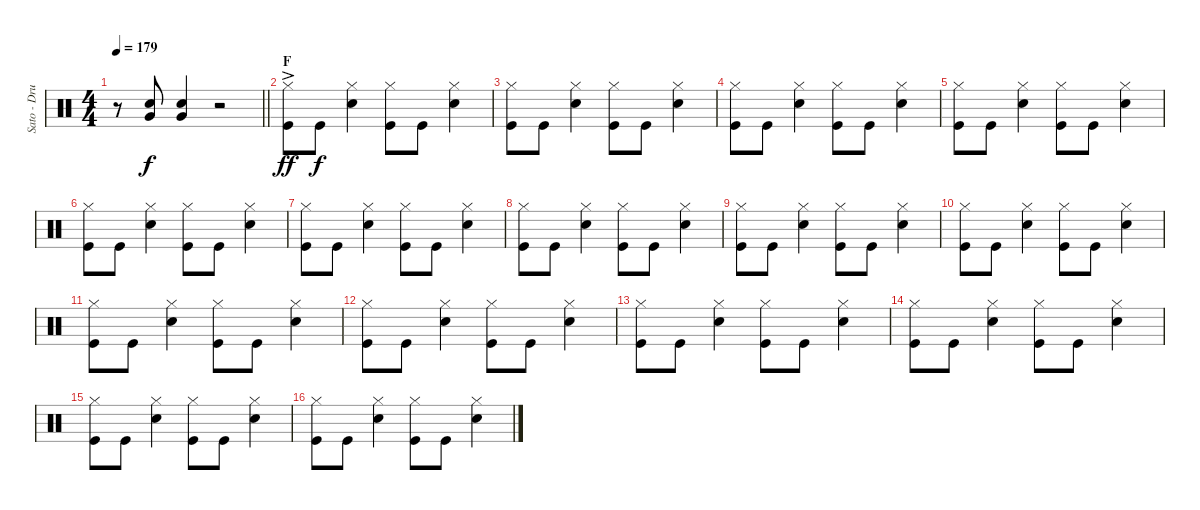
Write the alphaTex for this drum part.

\track ("Sato - Drums" "Sato - Dru") {instrument percussion}
\staff {score}
\articulation defaults
\ts (4 4)
\tempo 179
\clef neutral
\barLineRight lightlight
\ks c
r.8{dy f} ("Electric Snare (hit)" "Very Low Tom (hit)").8 ("Electric Snare (hit)" "Very Low Tom (hit)").4 r.2 |
\section ("" "F")
("Hi-Hat (closed)"{ac} "Kick (hit)"{ac}).8{dy ff} "Kick (hit)".8{dy f} ("Hi-Hat (closed)" "Electric Snare (hit)").4 ("Hi-Hat (closed)" "Kick (hit)").8 "Kick (hit)".8 ("Hi-Hat (closed)" "Electric Snare (hit)").4 |
("Hi-Hat (closed)" "Kick (hit)").8 "Kick (hit)".8 ("Hi-Hat (closed)" "Electric Snare (hit)").4 ("Hi-Hat (closed)" "Kick (hit)").8 "Kick (hit)".8 ("Hi-Hat (closed)" "Electric Snare (hit)").4 |
("Hi-Hat (closed)" "Kick (hit)").8 "Kick (hit)".8 ("Hi-Hat (closed)" "Electric Snare (hit)").4 ("Hi-Hat (closed)" "Kick (hit)").8 "Kick (hit)".8 ("Hi-Hat (closed)" "Electric Snare (hit)").4 |
("Hi-Hat (closed)" "Kick (hit)").8 "Kick (hit)".8 ("Hi-Hat (closed)" "Electric Snare (hit)").4 ("Hi-Hat (closed)" "Kick (hit)").8 "Kick (hit)".8 ("Hi-Hat (closed)" "Electric Snare (hit)").4 |
("Hi-Hat (closed)" "Kick (hit)").8 "Kick (hit)".8 ("Hi-Hat (closed)" "Electric Snare (hit)").4 ("Hi-Hat (closed)" "Kick (hit)").8 "Kick (hit)".8 ("Hi-Hat (closed)" "Electric Snare (hit)").4 |
("Hi-Hat (closed)" "Kick (hit)").8 "Kick (hit)".8 ("Hi-Hat (closed)" "Electric Snare (hit)").4 ("Hi-Hat (closed)" "Kick (hit)").8 "Kick (hit)".8 ("Hi-Hat (closed)" "Electric Snare (hit)").4 |
("Hi-Hat (closed)" "Kick (hit)").8 "Kick (hit)".8 ("Hi-Hat (closed)" "Electric Snare (hit)").4 ("Hi-Hat (closed)" "Kick (hit)").8 "Kick (hit)".8 ("Hi-Hat (closed)" "Electric Snare (hit)").4 |
("Hi-Hat (closed)" "Kick (hit)").8 "Kick (hit)".8 ("Hi-Hat (closed)" "Electric Snare (hit)").4 ("Hi-Hat (closed)" "Kick (hit)").8 "Kick (hit)".8 ("Hi-Hat (closed)" "Electric Snare (hit)").4 |
("Hi-Hat (closed)" "Kick (hit)").8 "Kick (hit)".8 ("Hi-Hat (closed)" "Electric Snare (hit)").4 ("Hi-Hat (closed)" "Kick (hit)").8 "Kick (hit)".8 ("Hi-Hat (closed)" "Electric Snare (hit)").4 |
("Hi-Hat (closed)" "Kick (hit)").8 "Kick (hit)".8 ("Hi-Hat (closed)" "Electric Snare (hit)").4 ("Hi-Hat (closed)" "Kick (hit)").8 "Kick (hit)".8 ("Hi-Hat (closed)" "Electric Snare (hit)").4 |
("Hi-Hat (closed)" "Kick (hit)").8 "Kick (hit)".8 ("Hi-Hat (closed)" "Electric Snare (hit)").4 ("Hi-Hat (closed)" "Kick (hit)").8 "Kick (hit)".8 ("Hi-Hat (closed)" "Electric Snare (hit)").4 |
("Hi-Hat (closed)" "Kick (hit)").8 "Kick (hit)".8 ("Hi-Hat (closed)" "Electric Snare (hit)").4 ("Hi-Hat (closed)" "Kick (hit)").8 "Kick (hit)".8 ("Hi-Hat (closed)" "Electric Snare (hit)").4 |
("Hi-Hat (closed)" "Kick (hit)").8 "Kick (hit)".8 ("Hi-Hat (closed)" "Electric Snare (hit)").4 ("Hi-Hat (closed)" "Kick (hit)").8 "Kick (hit)".8 ("Hi-Hat (closed)" "Electric Snare (hit)").4 |
("Hi-Hat (closed)" "Kick (hit)").8 "Kick (hit)".8 ("Hi-Hat (closed)" "Electric Snare (hit)").4 ("Hi-Hat (closed)" "Kick (hit)").8 "Kick (hit)".8 ("Hi-Hat (closed)" "Electric Snare (hit)").4 |
("Hi-Hat (closed)" "Kick (hit)").8 "Kick (hit)".8 ("Hi-Hat (closed)" "Electric Snare (hit)").4 ("Hi-Hat (closed)" "Kick (hit)").8 "Kick (hit)".8 ("Hi-Hat (closed)" "Electric Snare (hit)").4
